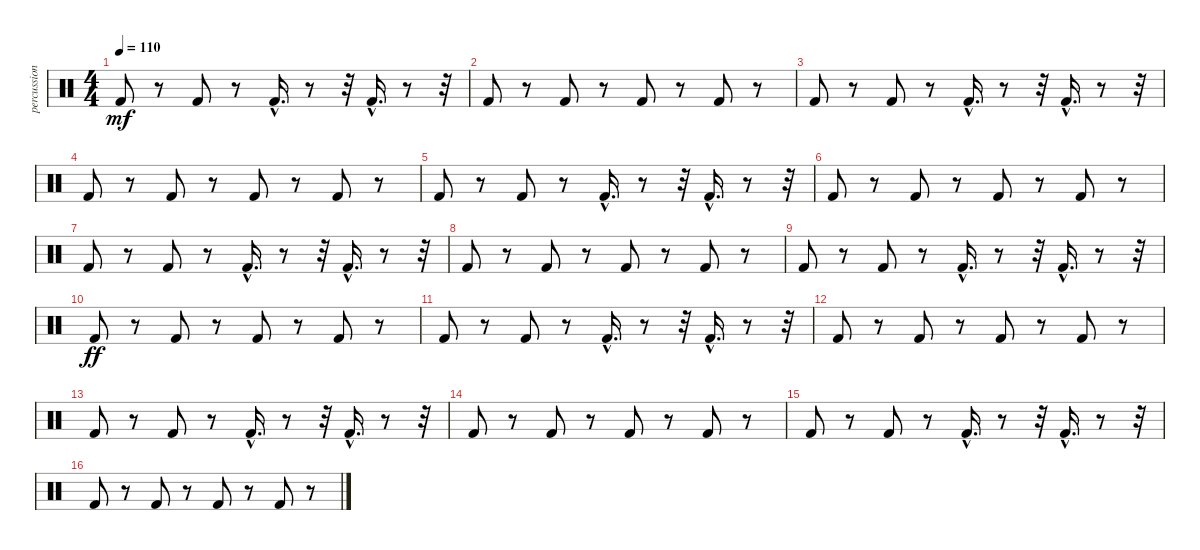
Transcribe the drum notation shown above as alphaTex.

\track ("percussions 1" "percussion") {instrument percussion}
\staff {score}
\articulation defaults
\ts (4 4)
\tempo 110
\clef neutral
\ks c "Kick (hit) 2".8{dy mf}
r.8 "Kick (hit) 2".8 r.8 "Kick (hit) 2"{hac}.16{d} r.8 r.32 "Kick (hit) 2"{hac}.16{d} r.8 r.32 |
"Kick (hit) 2".8 r.8 "Kick (hit) 2".8 r.8 "Kick (hit) 2".8 r.8 "Kick (hit) 2".8 r.8 |
"Kick (hit) 2".8 r.8 "Kick (hit) 2".8 r.8 "Kick (hit) 2"{hac}.16{d} r.8 r.32 "Kick (hit) 2"{hac}.16{d} r.8 r.32 |
"Kick (hit) 2".8 r.8 "Kick (hit) 2".8 r.8 "Kick (hit) 2".8 r.8 "Kick (hit) 2".8 r.8 |
"Kick (hit) 2".8 r.8 "Kick (hit) 2".8 r.8 "Kick (hit) 2"{hac}.16{d} r.8 r.32 "Kick (hit) 2"{hac}.16{d} r.8 r.32 |
"Kick (hit) 2".8 r.8 "Kick (hit) 2".8 r.8 "Kick (hit) 2".8 r.8 "Kick (hit) 2".8 r.8 |
"Kick (hit) 2".8 r.8 "Kick (hit) 2".8 r.8 "Kick (hit) 2"{hac}.16{d} r.8 r.32 "Kick (hit) 2"{hac}.16{d} r.8 r.32 |
"Kick (hit) 2".8 r.8 "Kick (hit) 2".8 r.8 "Kick (hit) 2".8 r.8 "Kick (hit) 2".8 r.8 |
"Kick (hit) 2".8 r.8 "Kick (hit) 2".8 r.8 "Kick (hit) 2"{hac}.16{d} r.8 r.32 "Kick (hit) 2"{hac}.16{d} r.8 r.32 |
"Kick (hit) 2".8{dy ff} r.8 "Kick (hit) 2".8 r.8 "Kick (hit) 2".8 r.8 "Kick (hit) 2".8 r.8 |
"Kick (hit) 2".8 r.8 "Kick (hit) 2".8 r.8 "Kick (hit) 2"{hac}.16{d} r.8 r.32 "Kick (hit) 2"{hac}.16{d} r.8 r.32 |
"Kick (hit) 2".8 r.8 "Kick (hit) 2".8 r.8 "Kick (hit) 2".8 r.8 "Kick (hit) 2".8 r.8 |
"Kick (hit) 2".8 r.8 "Kick (hit) 2".8 r.8 "Kick (hit) 2"{hac}.16{d} r.8 r.32 "Kick (hit) 2"{hac}.16{d} r.8 r.32 |
"Kick (hit) 2".8 r.8 "Kick (hit) 2".8 r.8 "Kick (hit) 2".8 r.8 "Kick (hit) 2".8 r.8 |
"Kick (hit) 2".8 r.8 "Kick (hit) 2".8 r.8 "Kick (hit) 2"{hac}.16{d} r.8 r.32 "Kick (hit) 2"{hac}.16{d} r.8 r.32 |
"Kick (hit) 2".8 r.8 "Kick (hit) 2".8 r.8 "Kick (hit) 2".8 r.8 "Kick (hit) 2".8 r.8
